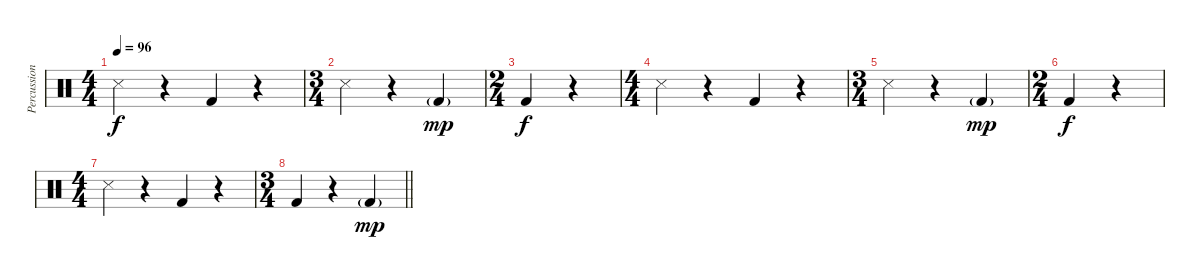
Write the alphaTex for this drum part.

\track ("Percussion" "Percussion") {instrument percussion}
\staff {score}
\articulation defaults
\ts (4 4)
\tempo 96
\clef neutral
\ks c "Snare (side stick) 3".4{dy f}
r.4 "Kick (hit) 2".4 r.4 |
\ts (3 4)
"Snare (side stick) 3".4 r.4 "Kick (hit) 2"{g}.4{dy mp} |
\ts (2 4)
"Kick (hit) 2".4{dy f} r.4 |
\ts (4 4)
"Snare (side stick) 3".4 r.4 "Kick (hit) 2".4 r.4 |
\ts (3 4)
"Snare (side stick) 3".4 r.4 "Kick (hit) 2"{g}.4{dy mp} |
\ts (2 4)
"Kick (hit) 2".4{dy f} r.4 |
\ts (4 4)
"Snare (side stick) 3".4 r.4 "Kick (hit) 2".4 r.4 |
\ts (3 4)
\barLineRight lightlight "Kick (hit) 2".4
r.4 "Kick (hit) 2"{g}.4{dy mp}
